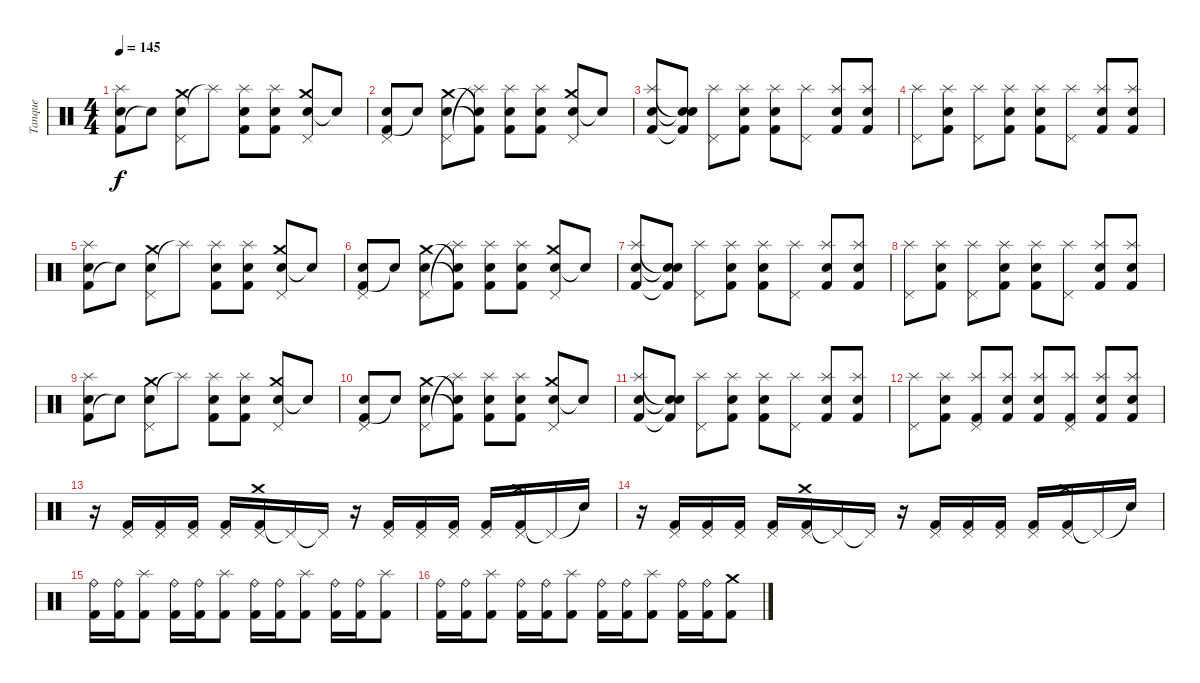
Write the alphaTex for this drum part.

\track ("Tanque" "Tanque") {instrument percussion}
\staff {score}
\articulation defaults
\ts (4 4)
\tempo 145
\clef neutral
\ks c
("Kick (hit) 2" "Electric Snare (hit)" "Splash (hit)").8{dy f} "Snare (hit)"{t}.8 ("Snare (hit) 2" "Crash medium (hit)" "Pedal Hi-Hat (hit)").8 "Splash (hit)"{t}.8 ("Kick (hit) 2" "Electric Snare (hit)" "Splash (hit)").8 ("Kick (hit) 2" "Electric Snare (hit)" "Splash (hit)").8 ("Snare (hit) 2" "Crash medium (hit)" "Pedal Hi-Hat (hit)").8 "Snare (hit)"{t}.8 |
("Kick (hit) 2" "Electric Snare (hit)" "Pedal Hi-Hat (hit)").8 "Snare (hit)"{t}.8 ("Snare (hit) 2" "Crash medium (hit)" "Pedal Hi-Hat (hit)").8 ("Kick (hit) 2"{t} "Electric Snare (hit)"{t} "Splash (hit)"{t}).8 ("Kick (hit) 2" "Electric Snare (hit)" "Splash (hit)").8 ("Kick (hit) 2" "Electric Snare (hit)" "Splash (hit)").8 ("Snare (hit) 2" "Crash medium (hit)" "Pedal Hi-Hat (hit)").8 "Snare (hit)"{t}.8 |
("Kick (hit) 2" "Snare (hit) 2" "Splash (hit)").8 ("Kick (hit) 2"{t} "Snare (hit)"{t} "Snare (hit)"{t}).8 ("Pedal Hi-Hat (hit)" "Splash (hit)").8 ("Kick (hit) 2" "Snare (hit) 2" "Splash (hit)").8 ("Kick (hit) 2" "Snare (hit) 2" "Splash (hit)").8 ("Pedal Hi-Hat (hit)" "Splash (hit)").8 ("Kick (hit) 2" "Snare (hit) 2" "Splash (hit)").8 ("Kick (hit) 2" "Snare (hit) 2" "Splash (hit)").8 |
("Pedal Hi-Hat (hit)" "Splash (hit)").8 ("Kick (hit) 2" "Snare (hit) 2" "Splash (hit)").8 ("Pedal Hi-Hat (hit)" "Splash (hit)").8 ("Kick (hit) 2" "Snare (hit) 2" "Splash (hit)").8 ("Kick (hit) 2" "Snare (hit) 2" "Splash (hit)").8 ("Pedal Hi-Hat (hit)" "Splash (hit)").8 ("Kick (hit) 2" "Snare (hit) 2" "Splash (hit)").8 ("Kick (hit) 2" "Snare (hit) 2" "Splash (hit)").8 |
("Kick (hit) 2" "Electric Snare (hit)" "Splash (hit)").8 "Snare (hit)"{t}.8 ("Snare (hit) 2" "Crash medium (hit)" "Pedal Hi-Hat (hit)").8 "Splash (hit)"{t}.8 ("Kick (hit) 2" "Electric Snare (hit)" "Splash (hit)").8 ("Kick (hit) 2" "Electric Snare (hit)" "Splash (hit)").8 ("Snare (hit) 2" "Crash medium (hit)" "Pedal Hi-Hat (hit)").8 "Snare (hit)"{t}.8 |
("Kick (hit) 2" "Electric Snare (hit)" "Pedal Hi-Hat (hit)").8 "Snare (hit)"{t}.8 ("Snare (hit) 2" "Crash medium (hit)" "Pedal Hi-Hat (hit)").8 ("Kick (hit) 2"{t} "Electric Snare (hit)"{t} "Splash (hit)"{t}).8 ("Kick (hit) 2" "Electric Snare (hit)" "Splash (hit)").8 ("Kick (hit) 2" "Electric Snare (hit)" "Splash (hit)").8 ("Snare (hit) 2" "Crash medium (hit)" "Pedal Hi-Hat (hit)").8 "Snare (hit)"{t}.8 |
("Kick (hit) 2" "Snare (hit) 2" "Splash (hit)").8 ("Kick (hit) 2"{t} "Snare (hit)"{t} "Snare (hit)"{t}).8 ("Pedal Hi-Hat (hit)" "Splash (hit)").8 ("Kick (hit) 2" "Snare (hit) 2" "Splash (hit)").8 ("Kick (hit) 2" "Snare (hit) 2" "Splash (hit)").8 ("Pedal Hi-Hat (hit)" "Splash (hit)").8 ("Kick (hit) 2" "Snare (hit) 2" "Splash (hit)").8 ("Kick (hit) 2" "Snare (hit) 2" "Splash (hit)").8 |
("Pedal Hi-Hat (hit)" "Splash (hit)").8 ("Kick (hit) 2" "Snare (hit) 2" "Splash (hit)").8 ("Pedal Hi-Hat (hit)" "Splash (hit)").8 ("Kick (hit) 2" "Snare (hit) 2" "Splash (hit)").8 ("Kick (hit) 2" "Snare (hit) 2" "Splash (hit)").8 ("Pedal Hi-Hat (hit)" "Splash (hit)").8 ("Kick (hit) 2" "Snare (hit) 2" "Splash (hit)").8 ("Kick (hit) 2" "Snare (hit) 2" "Splash (hit)").8 |
("Kick (hit) 2" "Electric Snare (hit)" "Splash (hit)").8 "Snare (hit)"{t}.8 ("Snare (hit) 2" "Crash medium (hit)" "Pedal Hi-Hat (hit)").8 "Splash (hit)"{t}.8 ("Kick (hit) 2" "Electric Snare (hit)" "Splash (hit)").8 ("Kick (hit) 2" "Electric Snare (hit)" "Splash (hit)").8 ("Snare (hit) 2" "Crash medium (hit)" "Pedal Hi-Hat (hit)").8 "Snare (hit)"{t}.8 |
("Kick (hit) 2" "Electric Snare (hit)" "Pedal Hi-Hat (hit)").8 "Snare (hit)"{t}.8 ("Snare (hit) 2" "Crash medium (hit)" "Pedal Hi-Hat (hit)").8 ("Kick (hit) 2"{t} "Electric Snare (hit)"{t} "Splash (hit)"{t}).8 ("Kick (hit) 2" "Electric Snare (hit)" "Splash (hit)").8 ("Kick (hit) 2" "Electric Snare (hit)" "Splash (hit)").8 ("Snare (hit) 2" "Crash medium (hit)" "Pedal Hi-Hat (hit)").8 "Snare (hit)"{t}.8 |
("Kick (hit) 2" "Snare (hit) 2" "Splash (hit)").8 ("Kick (hit) 2"{t} "Snare (hit)"{t} "Snare (hit)"{t}).8 ("Pedal Hi-Hat (hit)" "Splash (hit)").8 ("Kick (hit) 2" "Snare (hit) 2" "Splash (hit)").8 ("Kick (hit) 2" "Snare (hit) 2" "Splash (hit)").8 ("Pedal Hi-Hat (hit)" "Splash (hit)").8 ("Kick (hit) 2" "Snare (hit) 2" "Splash (hit)").8 ("Kick (hit) 2" "Snare (hit) 2" "Splash (hit)").8 |
("Pedal Hi-Hat (hit)" "Splash (hit)").8 ("Kick (hit) 2" "Snare (hit) 2" "Splash (hit)").8 ("Kick (hit) 2" "Pedal Hi-Hat (hit)" "Splash (hit)").8 ("Kick (hit) 2" "Snare (hit) 2" "Splash (hit)").8 ("Kick (hit) 2" "Snare (hit) 2" "Splash (hit)").8 ("Kick (hit) 2" "Pedal Hi-Hat (hit)" "Splash (hit)").8 ("Kick (hit) 2" "Snare (hit) 2" "Splash (hit)").8 ("Kick (hit) 2" "Snare (hit) 2" "Splash (hit)").8 |
r.16 ("Kick (hit) 2" "Pedal Hi-Hat (hit)").16 ("Kick (hit) 2" "Pedal Hi-Hat (hit)").16 ("Kick (hit) 2" "Pedal Hi-Hat (hit)").16 ("Kick (hit) 2" "Pedal Hi-Hat (hit)").16 ("Kick (hit) 2" "Pedal Hi-Hat (hit)" "Crash medium (hit)").16 "Pedal Hi-Hat (hit)"{t}.16 "Pedal Hi-Hat (hit)"{t}.16 r.16 ("Kick (hit) 2" "Pedal Hi-Hat (hit)").16 ("Kick (hit) 2" "Pedal Hi-Hat (hit)").16 ("Kick (hit) 2" "Pedal Hi-Hat (hit)").16 ("Kick (hit) 2" "Pedal Hi-Hat (hit)").16 ("Kick (hit) 2" "Pedal Hi-Hat (hit)" "Crash medium (hit)").16 "Pedal Hi-Hat (hit)"{t}.16 "Snare (hit)"{t}.16 |
r.16 ("Kick (hit) 2" "Pedal Hi-Hat (hit)").16 ("Kick (hit) 2" "Pedal Hi-Hat (hit)").16 ("Kick (hit) 2" "Pedal Hi-Hat (hit)").16 ("Kick (hit) 2" "Pedal Hi-Hat (hit)").16 ("Kick (hit) 2" "Pedal Hi-Hat (hit)" "Crash medium (hit)").16 "Pedal Hi-Hat (hit)"{t}.16 "Pedal Hi-Hat (hit)"{t}.16 r.16 ("Kick (hit) 2" "Pedal Hi-Hat (hit)").16 ("Kick (hit) 2" "Pedal Hi-Hat (hit)").16 ("Kick (hit) 2" "Pedal Hi-Hat (hit)").16 ("Kick (hit) 2" "Pedal Hi-Hat (hit)").16 ("Kick (hit) 2" "Pedal Hi-Hat (hit)" "Crash medium (hit)").16 "Pedal Hi-Hat (hit)"{t}.16 "Snare (hit)"{t}.16 |
("Kick (hit) 2" "Ride (bell)").16 ("Kick (hit) 2" "Ride (bell)").16 ("Kick (hit) 2" "Splash (hit)").8 ("Kick (hit) 2" "Ride (bell)").16 ("Kick (hit) 2" "Ride (bell)").16 ("Kick (hit) 2" "Splash (hit)").8 ("Kick (hit) 2" "Ride (bell)").16 ("Kick (hit) 2" "Ride (bell)").16 ("Kick (hit) 2" "Splash (hit)").8 ("Kick (hit) 2" "Ride (bell)").16 ("Kick (hit) 2" "Ride (bell)").16 ("Kick (hit) 2" "Splash (hit)").8 |
("Kick (hit) 2" "Ride (bell)").16 ("Kick (hit) 2" "Ride (bell)").16 ("Kick (hit) 2" "Splash (hit)").8 ("Kick (hit) 2" "Ride (bell)").16 ("Kick (hit) 2" "Ride (bell)").16 ("Kick (hit) 2" "Splash (hit)").8 ("Kick (hit) 2" "Ride (bell)").16 ("Kick (hit) 2" "Ride (bell)").16 ("Kick (hit) 2" "Splash (hit)").8 ("Kick (hit) 2" "Ride (bell)").16 ("Kick (hit) 2" "Ride (bell)").16 ("Kick (hit) 2" "Crash medium (hit)").8
